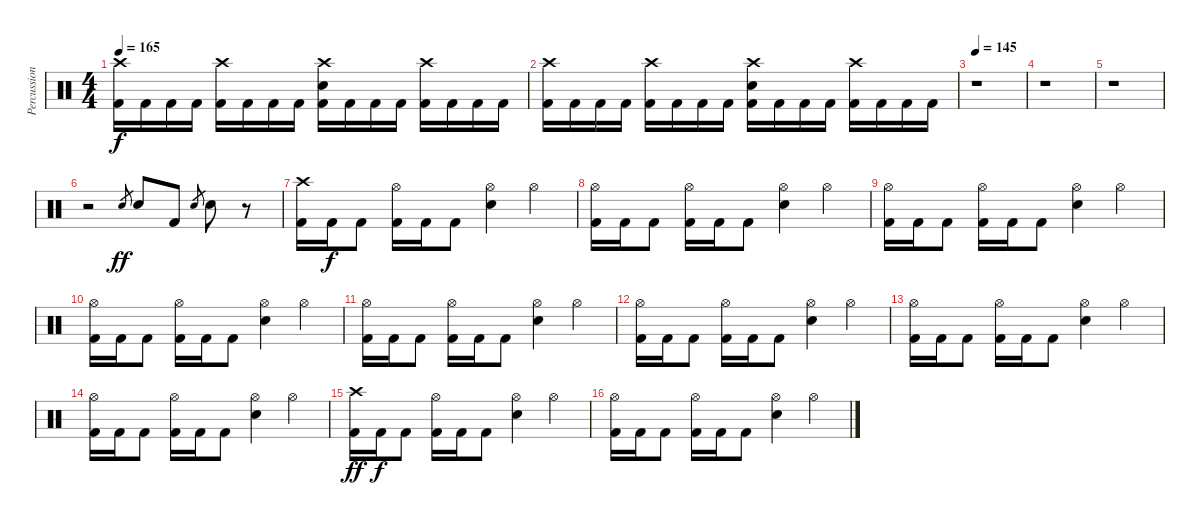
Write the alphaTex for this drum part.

\track ("Percussion" "Percussion") {instrument percussion}
\staff {score}
\articulation defaults
\ts (4 4)
\tempo 165
\clef neutral
\ks c
("Crash high (hit)" "Kick (hit) 2").16{dy f} "Kick (hit) 2".16 "Kick (hit) 2".16 "Kick (hit) 2".16 ("Crash high (hit)" "Kick (hit) 2").16 "Kick (hit) 2".16 "Kick (hit) 2".16 "Kick (hit) 2".16 ("Crash high (hit)" "Snare (hit) 2" "Kick (hit) 2").16 "Kick (hit) 2".16 "Kick (hit) 2".16 "Kick (hit) 2".16 ("Crash high (hit)" "Kick (hit) 2").16 "Kick (hit) 2".16 "Kick (hit) 2".16 "Kick (hit) 2".16 |
("Crash high (hit)" "Kick (hit) 2").16 "Kick (hit) 2".16 "Kick (hit) 2".16 "Kick (hit) 2".16 ("Crash high (hit)" "Kick (hit) 2").16 "Kick (hit) 2".16 "Kick (hit) 2".16 "Kick (hit) 2".16 ("Crash high (hit)" "Snare (hit) 2" "Kick (hit) 2").16 "Kick (hit) 2".16 "Kick (hit) 2".16 "Kick (hit) 2".16 ("Crash high (hit)" "Kick (hit) 2").16 "Kick (hit) 2".16 "Kick (hit) 2".16 "Kick (hit) 2".16 |
\tempo 145
r.1 |
r.1 |
r.1 |
r.2 "Snare (hit) 2".8{gr dy ff} "Snare (hit) 2".8 "Kick (hit) 2".8 "Snare (hit) 2".8{gr} "Snare (hit) 2".8 r.8 |
("Crash high (hit)" "Kick (hit) 2").16 "Kick (hit) 2".16{dy f} "Kick (hit) 2".8 ("Hi-Hat (open)" "Kick (hit) 2").16 "Kick (hit) 2".16 "Kick (hit) 2".8 ("Hi-Hat (open)" "Snare (hit) 2").4 "Hi-Hat (open)".4 |
("Hi-Hat (open)" "Kick (hit) 2").16 "Kick (hit) 2".16 "Kick (hit) 2".8 ("Hi-Hat (open)" "Kick (hit) 2").16 "Kick (hit) 2".16 "Kick (hit) 2".8 ("Hi-Hat (open)" "Snare (hit) 2").4 "Hi-Hat (open)".4 |
("Hi-Hat (open)" "Kick (hit) 2").16 "Kick (hit) 2".16 "Kick (hit) 2".8 ("Hi-Hat (open)" "Kick (hit) 2").16 "Kick (hit) 2".16 "Kick (hit) 2".8 ("Hi-Hat (open)" "Snare (hit) 2").4 "Hi-Hat (open)".4 |
("Hi-Hat (open)" "Kick (hit) 2").16 "Kick (hit) 2".16 "Kick (hit) 2".8 ("Hi-Hat (open)" "Kick (hit) 2").16 "Kick (hit) 2".16 "Kick (hit) 2".8 ("Hi-Hat (open)" "Snare (hit) 2").4 "Hi-Hat (open)".4 |
("Hi-Hat (open)" "Kick (hit) 2").16 "Kick (hit) 2".16 "Kick (hit) 2".8 ("Hi-Hat (open)" "Kick (hit) 2").16 "Kick (hit) 2".16 "Kick (hit) 2".8 ("Hi-Hat (open)" "Snare (hit) 2").4 "Hi-Hat (open)".4 |
("Hi-Hat (open)" "Kick (hit) 2").16 "Kick (hit) 2".16 "Kick (hit) 2".8 ("Hi-Hat (open)" "Kick (hit) 2").16 "Kick (hit) 2".16 "Kick (hit) 2".8 ("Hi-Hat (open)" "Snare (hit) 2").4 "Hi-Hat (open)".4 |
("Hi-Hat (open)" "Kick (hit) 2").16 "Kick (hit) 2".16 "Kick (hit) 2".8 ("Hi-Hat (open)" "Kick (hit) 2").16 "Kick (hit) 2".16 "Kick (hit) 2".8 ("Hi-Hat (open)" "Snare (hit) 2").4 "Hi-Hat (open)".4 |
("Hi-Hat (open)" "Kick (hit) 2").16 "Kick (hit) 2".16 "Kick (hit) 2".8 ("Hi-Hat (open)" "Kick (hit) 2").16 "Kick (hit) 2".16 "Kick (hit) 2".8 ("Hi-Hat (open)" "Snare (hit) 2").4 "Hi-Hat (open)".4 |
("Crash high (hit)" "Kick (hit) 2").16{dy ff} "Kick (hit) 2".16{dy f} "Kick (hit) 2".8 ("Hi-Hat (open)" "Kick (hit) 2").16 "Kick (hit) 2".16 "Kick (hit) 2".8 ("Hi-Hat (open)" "Snare (hit) 2").4 "Hi-Hat (open)".4 |
("Hi-Hat (open)" "Kick (hit) 2").16 "Kick (hit) 2".16 "Kick (hit) 2".8 ("Hi-Hat (open)" "Kick (hit) 2").16 "Kick (hit) 2".16 "Kick (hit) 2".8 ("Hi-Hat (open)" "Snare (hit) 2").4 "Hi-Hat (open)".4
